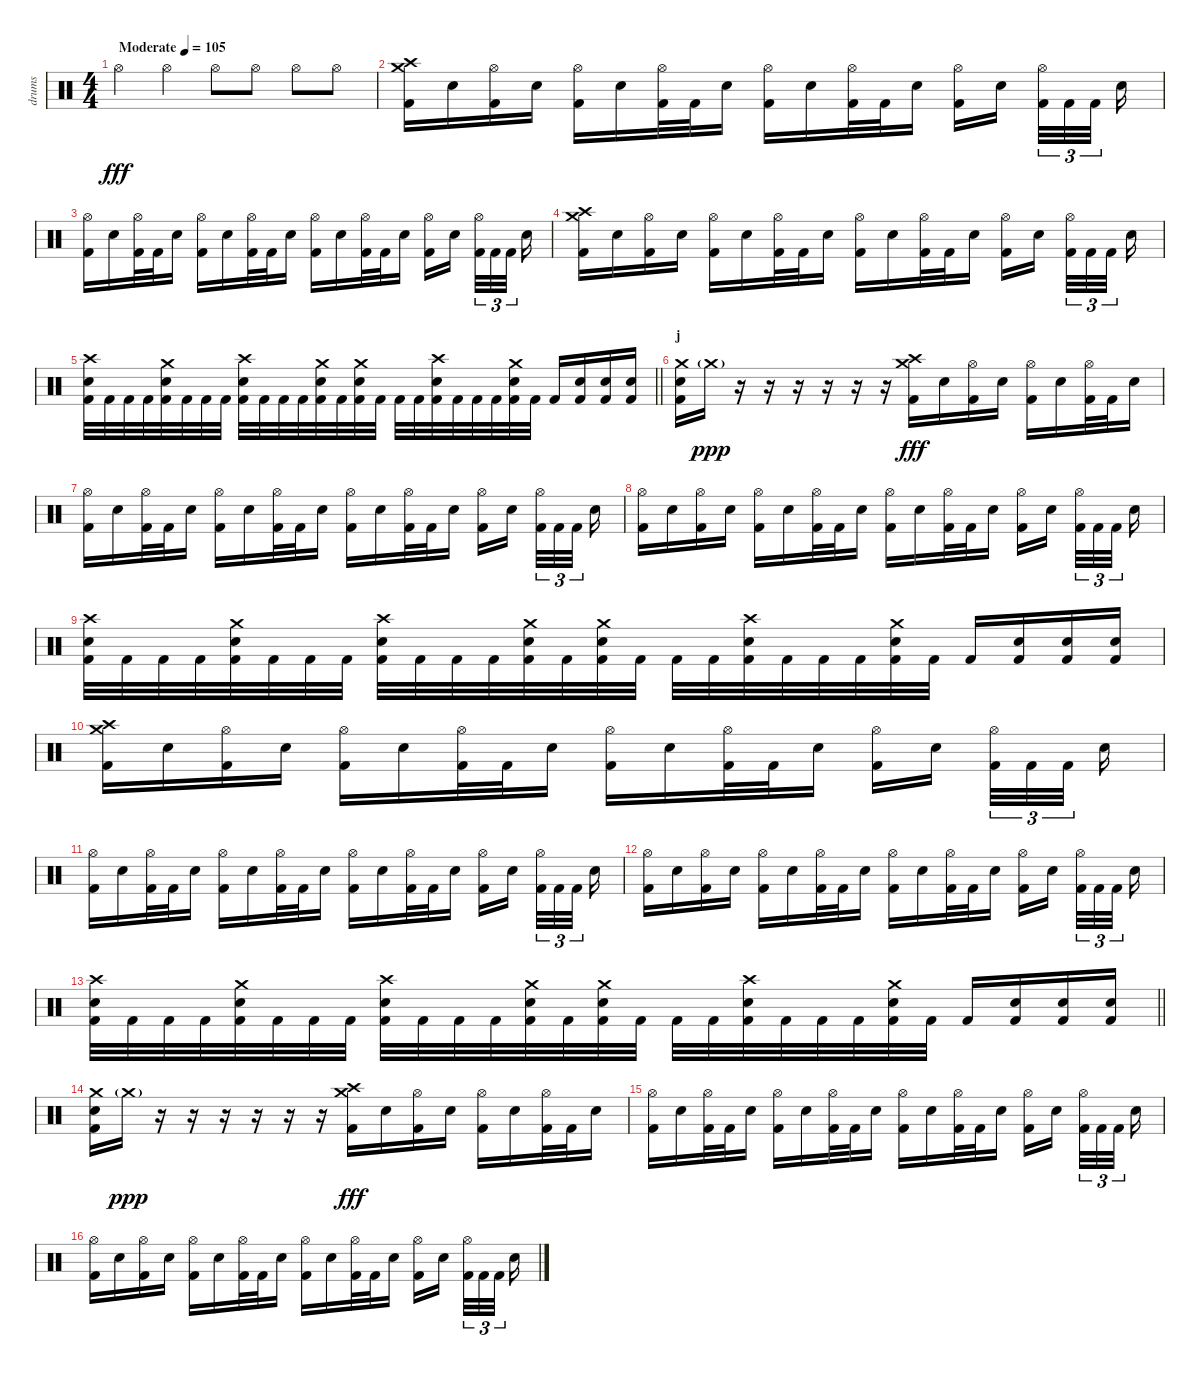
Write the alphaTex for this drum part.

\track ("drums" "drums") {instrument percussion}
\staff {score}
\articulation defaults
\ts (4 4)
\tempo (105 "Moderate")
\clef neutral
\ks c "Hi-Hat (open)".4{dy fff} "Hi-Hat (open)".4 "Hi-Hat (open)".8 "Hi-Hat (open)".8 "Hi-Hat (open)".8 "Hi-Hat (open)".8
|
("Crash high (hit)" "Crash medium (hit)" "Kick (hit) 2").16 "Electric Snare (hit)".16 ("Hi-Hat (open)" "Kick (hit) 2").16 "Electric Snare (hit)".16 ("Hi-Hat (open)" "Kick (hit) 2").16 "Electric Snare (hit)".16 ("Hi-Hat (open)" "Kick (hit) 2").32 "Kick (hit) 2".32 "Electric Snare (hit)".16 ("Hi-Hat (open)" "Kick (hit) 2").16 "Electric Snare (hit)".16 ("Hi-Hat (open)" "Kick (hit) 2").32 "Kick (hit) 2".32 "Electric Snare (hit)".16 ("Hi-Hat (open)" "Kick (hit) 2").16 "Electric Snare (hit)".16{beam splitsecondary} ("Hi-Hat (open)" "Kick (hit) 2").32{tu (3 2)} "Kick (hit) 2".32{tu (3 2)} "Kick (hit) 2".32{tu (3 2) beam splitsecondary} "Electric Snare (hit)".16 |
("Hi-Hat (open)" "Kick (hit) 2").16 "Electric Snare (hit)".16 ("Hi-Hat (open)" "Kick (hit) 2").32 "Kick (hit) 2".32 "Electric Snare (hit)".16 ("Hi-Hat (open)" "Kick (hit) 2").16 "Electric Snare (hit)".16 ("Hi-Hat (open)" "Kick (hit) 2").32 "Kick (hit) 2".32 "Electric Snare (hit)".16 ("Hi-Hat (open)" "Kick (hit) 2").16 "Electric Snare (hit)".16 ("Hi-Hat (open)" "Kick (hit) 2").32 "Kick (hit) 2".32 "Electric Snare (hit)".16 ("Hi-Hat (open)" "Kick (hit) 2").16 "Electric Snare (hit)".16{beam splitsecondary} ("Hi-Hat (open)" "Kick (hit) 2").32{tu (3 2)} "Kick (hit) 2".32{tu (3 2)} "Kick (hit) 2".32{tu (3 2) beam splitsecondary} "Electric Snare (hit)".16 |
("Crash high (hit)" "Crash medium (hit)" "Kick (hit) 2").16 "Electric Snare (hit)".16 ("Hi-Hat (open)" "Kick (hit) 2").16 "Electric Snare (hit)".16 ("Hi-Hat (open)" "Kick (hit) 2").16 "Electric Snare (hit)".16 ("Hi-Hat (open)" "Kick (hit) 2").32 "Kick (hit) 2".32 "Electric Snare (hit)".16 ("Hi-Hat (open)" "Kick (hit) 2").16 "Electric Snare (hit)".16 ("Hi-Hat (open)" "Kick (hit) 2").32 "Kick (hit) 2".32 "Electric Snare (hit)".16 ("Hi-Hat (open)" "Kick (hit) 2").16 "Electric Snare (hit)".16{beam splitsecondary} ("Hi-Hat (open)" "Kick (hit) 2").32{tu (3 2)} "Kick (hit) 2".32{tu (3 2)} "Kick (hit) 2".32{tu (3 2) beam splitsecondary} "Electric Snare (hit)".16 |
\barLineRight lightlight
("Crash high (hit)" "Electric Snare (hit)" "Kick (hit) 2").32 "Kick (hit) 2".32 "Kick (hit) 2".32 "Kick (hit) 2".32 ("Crash medium (hit)" "Electric Snare (hit)" "Kick (hit) 2").32 "Kick (hit) 2".32 "Kick (hit) 2".32 "Kick (hit) 2".32 ("Crash high (hit)" "Electric Snare (hit)" "Kick (hit) 2").32 "Kick (hit) 2".32 "Kick (hit) 2".32 "Kick (hit) 2".32 ("Crash medium (hit)" "Electric Snare (hit)" "Kick (hit) 2").32 "Kick (hit) 2".32 ("Crash medium (hit)" "Electric Snare (hit)" "Kick (hit) 2").32 "Kick (hit) 2".32 "Kick (hit) 2".32 "Kick (hit) 2".32 ("Crash high (hit)" "Electric Snare (hit)" "Kick (hit) 2").32 "Kick (hit) 2".32 "Kick (hit) 2".32 "Kick (hit) 2".32 ("Crash medium (hit)" "Electric Snare (hit)" "Kick (hit) 2").32 "Kick (hit) 2".32 "Kick (hit) 2".16 ("Electric Snare (hit)" "Kick (hit) 2").16 ("Electric Snare (hit)" "Kick (hit) 2").16 ("Electric Snare (hit)" "Kick (hit) 2").16 |
\section ("" "j")
("Crash medium (hit)" "Electric Snare (hit)" "Kick (hit) 2").16 "Crash medium (hit)"{g}.16{dy ppp} r.16 r.16 r.16 r.16 r.16 r.16 ("Crash high (hit)" "Crash medium (hit)" "Kick (hit) 2").16{dy fff} "Electric Snare (hit)".16 ("Hi-Hat (open)" "Kick (hit) 2").16 "Electric Snare (hit)".16 ("Hi-Hat (open)" "Kick (hit) 2").16 "Electric Snare (hit)".16 ("Hi-Hat (open)" "Kick (hit) 2").32 "Kick (hit) 2".32 "Electric Snare (hit)".16 |
("Hi-Hat (open)" "Kick (hit) 2").16 "Electric Snare (hit)".16 ("Hi-Hat (open)" "Kick (hit) 2").32 "Kick (hit) 2".32 "Electric Snare (hit)".16 ("Hi-Hat (open)" "Kick (hit) 2").16 "Electric Snare (hit)".16 ("Hi-Hat (open)" "Kick (hit) 2").32 "Kick (hit) 2".32 "Electric Snare (hit)".16 ("Hi-Hat (open)" "Kick (hit) 2").16 "Electric Snare (hit)".16 ("Hi-Hat (open)" "Kick (hit) 2").32 "Kick (hit) 2".32 "Electric Snare (hit)".16 ("Hi-Hat (open)" "Kick (hit) 2").16 "Electric Snare (hit)".16{beam splitsecondary} ("Hi-Hat (open)" "Kick (hit) 2").32{tu (3 2)} "Kick (hit) 2".32{tu (3 2)} "Kick (hit) 2".32{tu (3 2) beam splitsecondary} "Electric Snare (hit)".16 |
("Hi-Hat (open)" "Kick (hit) 2").16 "Electric Snare (hit)".16 ("Hi-Hat (open)" "Kick (hit) 2").16 "Electric Snare (hit)".16 ("Hi-Hat (open)" "Kick (hit) 2").16 "Electric Snare (hit)".16 ("Hi-Hat (open)" "Kick (hit) 2").32 "Kick (hit) 2".32 "Electric Snare (hit)".16 ("Hi-Hat (open)" "Kick (hit) 2").16 "Electric Snare (hit)".16 ("Hi-Hat (open)" "Kick (hit) 2").32 "Kick (hit) 2".32 "Electric Snare (hit)".16 ("Hi-Hat (open)" "Kick (hit) 2").16 "Electric Snare (hit)".16{beam splitsecondary} ("Hi-Hat (open)" "Kick (hit) 2").32{tu (3 2)} "Kick (hit) 2".32{tu (3 2)} "Kick (hit) 2".32{tu (3 2) beam splitsecondary} "Electric Snare (hit)".16 |
("Crash high (hit)" "Electric Snare (hit)" "Kick (hit) 2").32 "Kick (hit) 2".32 "Kick (hit) 2".32 "Kick (hit) 2".32 ("Crash medium (hit)" "Electric Snare (hit)" "Kick (hit) 2").32 "Kick (hit) 2".32 "Kick (hit) 2".32 "Kick (hit) 2".32 ("Crash high (hit)" "Electric Snare (hit)" "Kick (hit) 2").32 "Kick (hit) 2".32 "Kick (hit) 2".32 "Kick (hit) 2".32 ("Crash medium (hit)" "Electric Snare (hit)" "Kick (hit) 2").32 "Kick (hit) 2".32 ("Crash medium (hit)" "Electric Snare (hit)" "Kick (hit) 2").32 "Kick (hit) 2".32 "Kick (hit) 2".32 "Kick (hit) 2".32 ("Crash high (hit)" "Electric Snare (hit)" "Kick (hit) 2").32 "Kick (hit) 2".32 "Kick (hit) 2".32 "Kick (hit) 2".32 ("Crash medium (hit)" "Electric Snare (hit)" "Kick (hit) 2").32 "Kick (hit) 2".32 "Kick (hit) 2".16 ("Electric Snare (hit)" "Kick (hit) 2").16 ("Electric Snare (hit)" "Kick (hit) 2").16 ("Electric Snare (hit)" "Kick (hit) 2").16 |
("Crash high (hit)" "Crash medium (hit)" "Kick (hit) 2").16 "Electric Snare (hit)".16 ("Hi-Hat (open)" "Kick (hit) 2").16 "Electric Snare (hit)".16 ("Hi-Hat (open)" "Kick (hit) 2").16 "Electric Snare (hit)".16 ("Hi-Hat (open)" "Kick (hit) 2").32 "Kick (hit) 2".32 "Electric Snare (hit)".16 ("Hi-Hat (open)" "Kick (hit) 2").16 "Electric Snare (hit)".16 ("Hi-Hat (open)" "Kick (hit) 2").32 "Kick (hit) 2".32 "Electric Snare (hit)".16 ("Hi-Hat (open)" "Kick (hit) 2").16 "Electric Snare (hit)".16{beam splitsecondary} ("Hi-Hat (open)" "Kick (hit) 2").32{tu (3 2)} "Kick (hit) 2".32{tu (3 2)} "Kick (hit) 2".32{tu (3 2) beam splitsecondary} "Electric Snare (hit)".16 |
("Hi-Hat (open)" "Kick (hit) 2").16 "Electric Snare (hit)".16 ("Hi-Hat (open)" "Kick (hit) 2").32 "Kick (hit) 2".32 "Electric Snare (hit)".16 ("Hi-Hat (open)" "Kick (hit) 2").16 "Electric Snare (hit)".16 ("Hi-Hat (open)" "Kick (hit) 2").32 "Kick (hit) 2".32 "Electric Snare (hit)".16 ("Hi-Hat (open)" "Kick (hit) 2").16 "Electric Snare (hit)".16 ("Hi-Hat (open)" "Kick (hit) 2").32 "Kick (hit) 2".32 "Electric Snare (hit)".16 ("Hi-Hat (open)" "Kick (hit) 2").16 "Electric Snare (hit)".16{beam splitsecondary} ("Hi-Hat (open)" "Kick (hit) 2").32{tu (3 2)} "Kick (hit) 2".32{tu (3 2)} "Kick (hit) 2".32{tu (3 2) beam splitsecondary} "Electric Snare (hit)".16 |
("Hi-Hat (open)" "Kick (hit) 2").16 "Electric Snare (hit)".16 ("Hi-Hat (open)" "Kick (hit) 2").16 "Electric Snare (hit)".16 ("Hi-Hat (open)" "Kick (hit) 2").16 "Electric Snare (hit)".16 ("Hi-Hat (open)" "Kick (hit) 2").32 "Kick (hit) 2".32 "Electric Snare (hit)".16 ("Hi-Hat (open)" "Kick (hit) 2").16 "Electric Snare (hit)".16 ("Hi-Hat (open)" "Kick (hit) 2").32 "Kick (hit) 2".32 "Electric Snare (hit)".16 ("Hi-Hat (open)" "Kick (hit) 2").16 "Electric Snare (hit)".16{beam splitsecondary} ("Hi-Hat (open)" "Kick (hit) 2").32{tu (3 2)} "Kick (hit) 2".32{tu (3 2)} "Kick (hit) 2".32{tu (3 2) beam splitsecondary} "Electric Snare (hit)".16 |
\barLineRight lightlight
("Crash high (hit)" "Electric Snare (hit)" "Kick (hit) 2").32 "Kick (hit) 2".32 "Kick (hit) 2".32 "Kick (hit) 2".32 ("Crash medium (hit)" "Electric Snare (hit)" "Kick (hit) 2").32 "Kick (hit) 2".32 "Kick (hit) 2".32 "Kick (hit) 2".32 ("Crash high (hit)" "Electric Snare (hit)" "Kick (hit) 2").32 "Kick (hit) 2".32 "Kick (hit) 2".32 "Kick (hit) 2".32 ("Crash medium (hit)" "Electric Snare (hit)" "Kick (hit) 2").32 "Kick (hit) 2".32 ("Crash medium (hit)" "Electric Snare (hit)" "Kick (hit) 2").32 "Kick (hit) 2".32 "Kick (hit) 2".32 "Kick (hit) 2".32 ("Crash high (hit)" "Electric Snare (hit)" "Kick (hit) 2").32 "Kick (hit) 2".32 "Kick (hit) 2".32 "Kick (hit) 2".32 ("Crash medium (hit)" "Electric Snare (hit)" "Kick (hit) 2").32 "Kick (hit) 2".32 "Kick (hit) 2".16 ("Electric Snare (hit)" "Kick (hit) 2").16 ("Electric Snare (hit)" "Kick (hit) 2").16 ("Electric Snare (hit)" "Kick (hit) 2").16 |
\section ("" "")
("Crash medium (hit)" "Electric Snare (hit)" "Kick (hit) 2").16 "Crash medium (hit)"{g}.16{dy ppp} r.16 r.16 r.16 r.16 r.16 r.16 ("Crash high (hit)" "Crash medium (hit)" "Kick (hit) 2").16{dy fff} "Electric Snare (hit)".16 ("Hi-Hat (open)" "Kick (hit) 2").16 "Electric Snare (hit)".16 ("Hi-Hat (open)" "Kick (hit) 2").16 "Electric Snare (hit)".16 ("Hi-Hat (open)" "Kick (hit) 2").32 "Kick (hit) 2".32 "Electric Snare (hit)".16 |
("Hi-Hat (open)" "Kick (hit) 2").16 "Electric Snare (hit)".16 ("Hi-Hat (open)" "Kick (hit) 2").32 "Kick (hit) 2".32 "Electric Snare (hit)".16 ("Hi-Hat (open)" "Kick (hit) 2").16 "Electric Snare (hit)".16 ("Hi-Hat (open)" "Kick (hit) 2").32 "Kick (hit) 2".32 "Electric Snare (hit)".16 ("Hi-Hat (open)" "Kick (hit) 2").16 "Electric Snare (hit)".16 ("Hi-Hat (open)" "Kick (hit) 2").32 "Kick (hit) 2".32 "Electric Snare (hit)".16 ("Hi-Hat (open)" "Kick (hit) 2").16 "Electric Snare (hit)".16{beam splitsecondary} ("Hi-Hat (open)" "Kick (hit) 2").32{tu (3 2)} "Kick (hit) 2".32{tu (3 2)} "Kick (hit) 2".32{tu (3 2) beam splitsecondary} "Electric Snare (hit)".16 |
("Hi-Hat (open)" "Kick (hit) 2").16 "Electric Snare (hit)".16 ("Hi-Hat (open)" "Kick (hit) 2").16 "Electric Snare (hit)".16 ("Hi-Hat (open)" "Kick (hit) 2").16 "Electric Snare (hit)".16 ("Hi-Hat (open)" "Kick (hit) 2").32 "Kick (hit) 2".32 "Electric Snare (hit)".16 ("Hi-Hat (open)" "Kick (hit) 2").16 "Electric Snare (hit)".16 ("Hi-Hat (open)" "Kick (hit) 2").32 "Kick (hit) 2".32 "Electric Snare (hit)".16 ("Hi-Hat (open)" "Kick (hit) 2").16 "Electric Snare (hit)".16{beam splitsecondary} ("Hi-Hat (open)" "Kick (hit) 2").32{tu (3 2)} "Kick (hit) 2".32{tu (3 2)} "Kick (hit) 2".32{tu (3 2) beam splitsecondary} "Electric Snare (hit)".16
